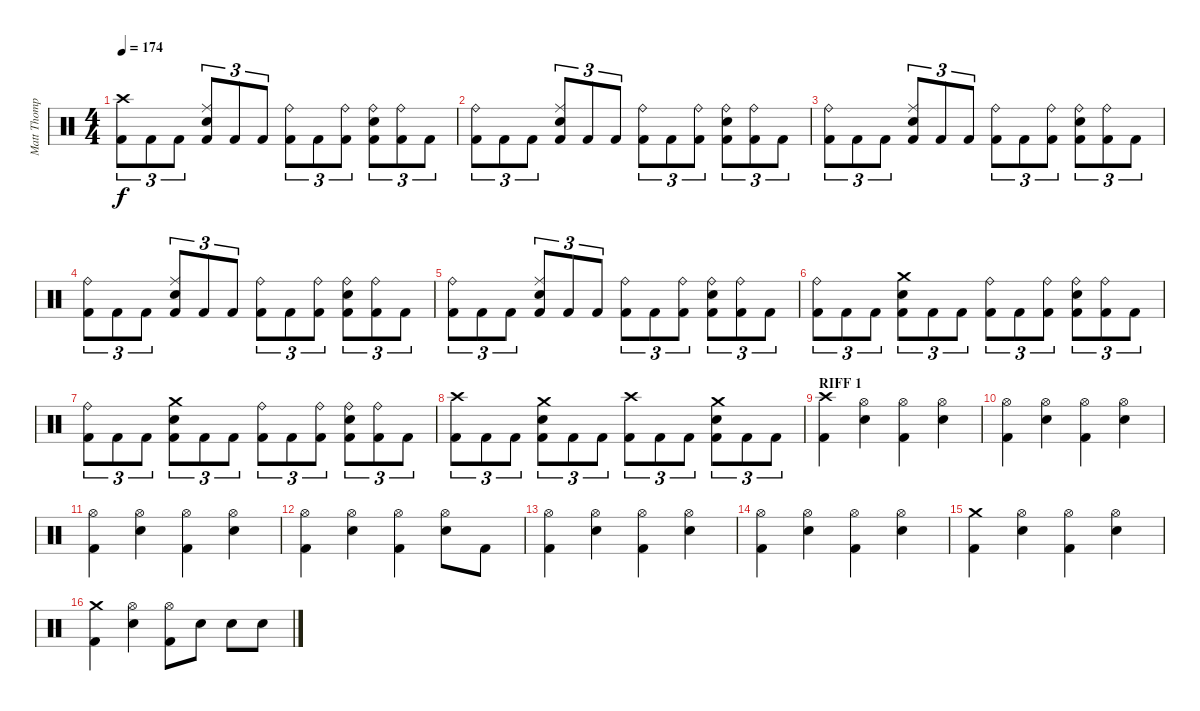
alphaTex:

\track ("Matt Thompson" "Matt Thomp") {instrument percussion}
\staff {score}
\articulation defaults
\ts (4 4)
\tempo 174
\clef neutral
\ks c
("Crash high (hit)" "Kick (hit) 2").8{tu (3 2) dy f} "Kick (hit) 2".8{tu (3 2)} "Kick (hit) 2".8{tu (3 2)} ("Ride (middle)" "Snare (hit) 2" "Kick (hit) 2").8{tu (3 2)} "Kick (hit) 2".8{tu (3 2)} "Kick (hit) 2".8{tu (3 2)} ("Ride (bell)" "Kick (hit) 2").8{tu (3 2)} "Kick (hit) 2".8{tu (3 2)} ("Ride (bell)" "Kick (hit) 2").8{tu (3 2)} ("Ride (bell)" "Snare (hit) 2" "Kick (hit) 2").8{tu (3 2)} ("Ride (bell)" "Kick (hit) 2").8{tu (3 2)} "Kick (hit) 2".8{tu (3 2)} |
("Ride (bell)" "Kick (hit) 2").8{tu (3 2)} "Kick (hit) 2".8{tu (3 2)} "Kick (hit) 2".8{tu (3 2)} ("Ride (middle)" "Snare (hit) 2" "Kick (hit) 2").8{tu (3 2)} "Kick (hit) 2".8{tu (3 2)} "Kick (hit) 2".8{tu (3 2)} ("Ride (bell)" "Kick (hit) 2").8{tu (3 2)} "Kick (hit) 2".8{tu (3 2)} ("Ride (bell)" "Kick (hit) 2").8{tu (3 2)} ("Ride (bell)" "Snare (hit) 2" "Kick (hit) 2").8{tu (3 2)} ("Ride (bell)" "Kick (hit) 2").8{tu (3 2)} "Kick (hit) 2".8{tu (3 2)} |
("Ride (bell)" "Kick (hit) 2").8{tu (3 2)} "Kick (hit) 2".8{tu (3 2)} "Kick (hit) 2".8{tu (3 2)} ("Ride (middle)" "Snare (hit) 2" "Kick (hit) 2").8{tu (3 2)} "Kick (hit) 2".8{tu (3 2)} "Kick (hit) 2".8{tu (3 2)} ("Ride (bell)" "Kick (hit) 2").8{tu (3 2)} "Kick (hit) 2".8{tu (3 2)} ("Ride (bell)" "Kick (hit) 2").8{tu (3 2)} ("Ride (bell)" "Snare (hit) 2" "Kick (hit) 2").8{tu (3 2)} ("Ride (bell)" "Kick (hit) 2").8{tu (3 2)} "Kick (hit) 2".8{tu (3 2)} |
("Ride (bell)" "Kick (hit) 2").8{tu (3 2)} "Kick (hit) 2".8{tu (3 2)} "Kick (hit) 2".8{tu (3 2)} ("Ride (middle)" "Snare (hit) 2" "Kick (hit) 2").8{tu (3 2)} "Kick (hit) 2".8{tu (3 2)} "Kick (hit) 2".8{tu (3 2)} ("Ride (bell)" "Kick (hit) 2").8{tu (3 2)} "Kick (hit) 2".8{tu (3 2)} ("Ride (bell)" "Kick (hit) 2").8{tu (3 2)} ("Ride (bell)" "Snare (hit) 2" "Kick (hit) 2").8{tu (3 2)} ("Ride (bell)" "Kick (hit) 2").8{tu (3 2)} "Kick (hit) 2".8{tu (3 2)} |
("Ride (bell)" "Kick (hit) 2").8{tu (3 2)} "Kick (hit) 2".8{tu (3 2)} "Kick (hit) 2".8{tu (3 2)} ("Ride (middle)" "Snare (hit) 2" "Kick (hit) 2").8{tu (3 2)} "Kick (hit) 2".8{tu (3 2)} "Kick (hit) 2".8{tu (3 2)} ("Ride (bell)" "Kick (hit) 2").8{tu (3 2)} "Kick (hit) 2".8{tu (3 2)} ("Ride (bell)" "Kick (hit) 2").8{tu (3 2)} ("Ride (bell)" "Snare (hit) 2" "Kick (hit) 2").8{tu (3 2)} ("Ride (bell)" "Kick (hit) 2").8{tu (3 2)} "Kick (hit) 2".8{tu (3 2)} |
("Ride (bell)" "Kick (hit) 2").8{tu (3 2)} "Kick (hit) 2".8{tu (3 2)} "Kick (hit) 2".8{tu (3 2)} ("Crash medium (hit)" "Snare (hit) 2" "Kick (hit) 2").8{tu (3 2)} "Kick (hit) 2".8{tu (3 2)} "Kick (hit) 2".8{tu (3 2)} ("Ride (bell)" "Kick (hit) 2").8{tu (3 2)} "Kick (hit) 2".8{tu (3 2)} ("Ride (bell)" "Kick (hit) 2").8{tu (3 2)} ("Ride (bell)" "Snare (hit) 2" "Kick (hit) 2").8{tu (3 2)} ("Ride (bell)" "Kick (hit) 2").8{tu (3 2)} "Kick (hit) 2".8{tu (3 2)} |
("Ride (bell)" "Kick (hit) 2").8{tu (3 2)} "Kick (hit) 2".8{tu (3 2)} "Kick (hit) 2".8{tu (3 2)} ("Crash medium (hit)" "Snare (hit) 2" "Kick (hit) 2").8{tu (3 2)} "Kick (hit) 2".8{tu (3 2)} "Kick (hit) 2".8{tu (3 2)} ("Ride (bell)" "Kick (hit) 2").8{tu (3 2)} "Kick (hit) 2".8{tu (3 2)} ("Ride (bell)" "Kick (hit) 2").8{tu (3 2)} ("Ride (bell)" "Snare (hit) 2" "Kick (hit) 2").8{tu (3 2)} ("Ride (bell)" "Kick (hit) 2").8{tu (3 2)} "Kick (hit) 2".8{tu (3 2)} |
("Crash high (hit)" "Kick (hit) 2").8{tu (3 2)} "Kick (hit) 2".8{tu (3 2)} "Kick (hit) 2".8{tu (3 2)} ("Crash medium (hit)" "Snare (hit) 2" "Kick (hit) 2").8{tu (3 2)} "Kick (hit) 2".8{tu (3 2)} "Kick (hit) 2".8{tu (3 2)} ("Crash high (hit)" "Kick (hit) 2").8{tu (3 2)} "Kick (hit) 2".8{tu (3 2)} "Kick (hit) 2".8{tu (3 2)} ("Crash medium (hit)" "Snare (hit) 2" "Kick (hit) 2").8{tu (3 2)} "Kick (hit) 2".8{tu (3 2)} "Kick (hit) 2".8{tu (3 2)} |
\section ("" "RIFF 1")
("Crash high (hit)" "Kick (hit) 2").4 ("Hi-Hat (open)" "Snare (hit) 2").4 ("Hi-Hat (open)" "Kick (hit) 2").4 ("Hi-Hat (open)" "Snare (hit) 2").4 |
("Hi-Hat (open)" "Kick (hit) 2").4 ("Hi-Hat (open)" "Snare (hit) 2").4 ("Hi-Hat (open)" "Kick (hit) 2").4 ("Hi-Hat (open)" "Snare (hit) 2").4 |
("Hi-Hat (open)" "Kick (hit) 2").4 ("Hi-Hat (open)" "Snare (hit) 2").4 ("Hi-Hat (open)" "Kick (hit) 2").4 ("Hi-Hat (open)" "Snare (hit) 2").4 |
("Hi-Hat (open)" "Kick (hit) 2").4 ("Hi-Hat (open)" "Snare (hit) 2").4 ("Hi-Hat (open)" "Kick (hit) 2").4 ("Hi-Hat (open)" "Snare (hit) 2").8 "Kick (hit) 2".8 |
("Hi-Hat (open)" "Kick (hit) 2").4 ("Hi-Hat (open)" "Snare (hit) 2").4 ("Hi-Hat (open)" "Kick (hit) 2").4 ("Hi-Hat (open)" "Snare (hit) 2").4 |
("Hi-Hat (open)" "Kick (hit) 2").4 ("Hi-Hat (open)" "Snare (hit) 2").4 ("Hi-Hat (open)" "Kick (hit) 2").4 ("Hi-Hat (open)" "Snare (hit) 2").4 |
("Crash medium (hit)" "Kick (hit) 2").4 ("Hi-Hat (open)" "Snare (hit) 2").4 ("Hi-Hat (open)" "Kick (hit) 2").4 ("Hi-Hat (open)" "Snare (hit) 2").4 |
("Crash medium (hit)" "Kick (hit) 2").4 ("Hi-Hat (open)" "Snare (hit) 2").4 ("Hi-Hat (open)" "Kick (hit) 2").8 "Snare (hit) 2".8 "Snare (hit) 2".8 "Snare (hit) 2".8
